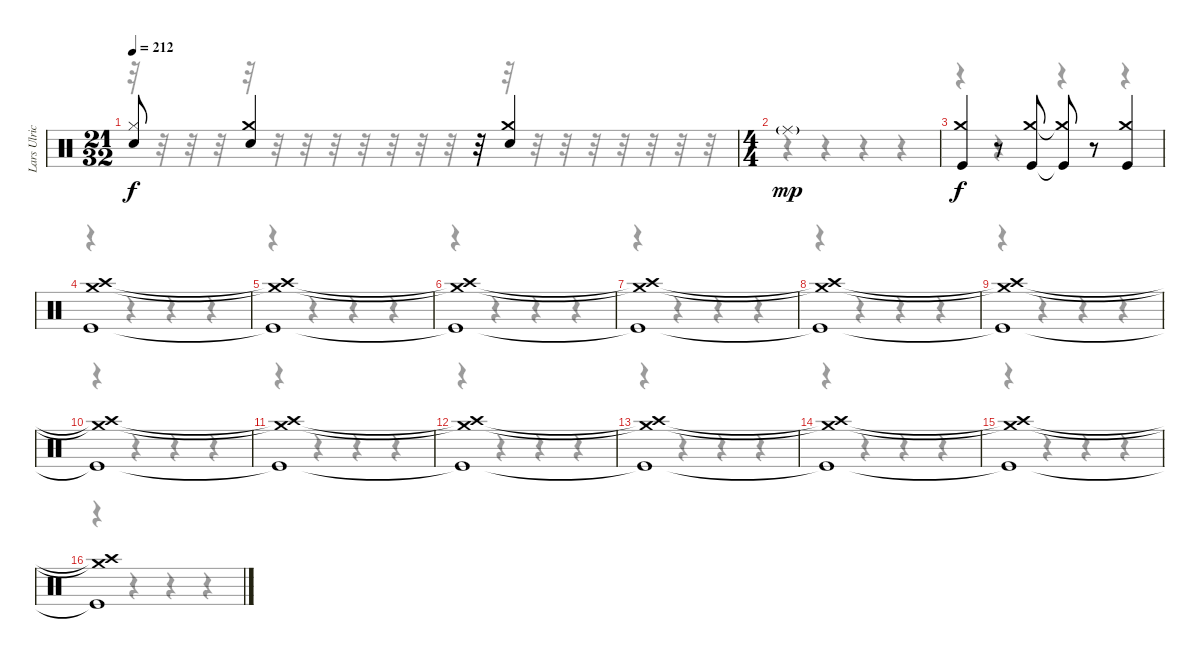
\track ("Lars Ulrich" "Lars Ulric") {instrument percussion}
\staff {score}
\articulation defaults
\voice
\ts (21 32)
\tempo 212
\clef neutral
\ks c
("Hi-Hat (closed)" "Snare (hit) 2").8{dy f} ("Crash medium (hit)" "Snare (hit) 2").4 r.32 ("Crash medium (hit)" "Snare (hit) 2").4 |
\ts (4 4)
"Ride (middle)"{g}.1{dy mp} |
("Crash medium (hit)" "Kick (hit)").4{dy f} r.8 ("Crash medium (hit)" "Kick (hit)").8 ("Crash medium (hit)"{t} "Kick (hit)"{t}).8 r.8 ("Crash medium (hit)" "Kick (hit)").4 |
("Crash high (hit)" "Crash medium (hit)" "Kick (hit)").1 |
("Crash high (hit)"{t} "Crash medium (hit)"{t} "Kick (hit)"{t}).1 |
("Crash high (hit)"{t} "Crash medium (hit)"{t} "Kick (hit)"{t}).1 |
("Crash high (hit)"{t} "Crash medium (hit)"{t} "Kick (hit)"{t}).1 |
("Crash high (hit)"{t} "Crash medium (hit)"{t} "Kick (hit)"{t}).1 |
("Crash high (hit)"{t} "Crash medium (hit)"{t} "Kick (hit)"{t}).1 |
("Crash high (hit)"{t} "Crash medium (hit)"{t} "Kick (hit)"{t}).1 |
("Crash high (hit)"{t} "Crash medium (hit)"{t} "Kick (hit)"{t}).1 |
("Crash high (hit)"{t} "Crash medium (hit)"{t} "Kick (hit)"{t}).1 |
("Crash high (hit)"{t} "Crash medium (hit)"{t} "Kick (hit)"{t}).1 |
("Crash high (hit)"{t} "Crash medium (hit)"{t} "Kick (hit)"{t}).1 |
("Crash high (hit)"{t} "Crash medium (hit)"{t} "Kick (hit)"{t}).1 |
("Crash high (hit)"{t} "Crash medium (hit)"{t} "Kick (hit)"{t}).1
\voice
\clef neutral
\ottava regular
\simile none
\ks c
r.32{dy f} r.32 r.32 r.32 r.32 r.32 r.32 r.32 r.32 r.32 r.32 r.32 r.32 r.32 r.32 r.32 r.32 r.32 r.32 r.32 r.32 |
r.4 r.4 r.4 r.4 |
r.4 r.4 r.4 r.4 |
r.4 r.4 r.4 r.4 |
r.4 r.4 r.4 r.4 |
r.4 r.4 r.4 r.4 |
r.4 r.4 r.4 r.4 |
r.4 r.4 r.4 r.4 |
r.4 r.4 r.4 r.4 |
r.4 r.4 r.4 r.4 |
r.4 r.4 r.4 r.4 |
r.4 r.4 r.4 r.4 |
r.4 r.4 r.4 r.4 |
r.4 r.4 r.4 r.4 |
r.4 r.4 r.4 r.4 |
r.4 r.4 r.4 r.4
